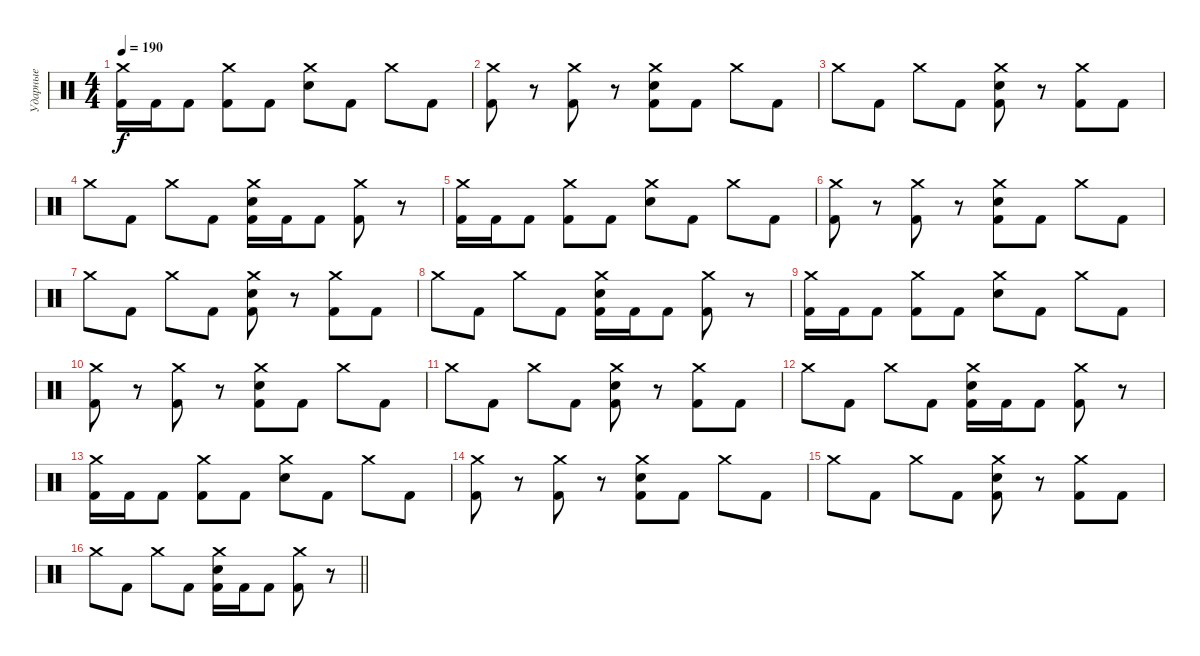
\track ("Ударные" "Ударные") {instrument percussion}
\staff {score}
\articulation defaults
\ts (4 4)
\section ("" "")
\tempo 190
\clef neutral
\ks c
("Crash medium (hit)" "Kick (hit) 2").16{dy f} "Kick (hit) 2".16 "Kick (hit) 2".8 ("Crash medium (hit)" "Kick (hit) 2").8 "Kick (hit) 2".8 ("Crash medium (hit)" "Snare (hit) 2").8 "Kick (hit) 2".8 "Crash medium (hit)".8 "Kick (hit) 2".8 |
("Crash medium (hit)" "Kick (hit) 2").8 r.8 ("Crash medium (hit)" "Kick (hit) 2").8 r.8 ("Crash medium (hit)" "Snare (hit) 2" "Kick (hit) 2").8 "Kick (hit) 2".8 "Crash medium (hit)".8 "Kick (hit) 2".8 |
"Crash medium (hit)".8 "Kick (hit) 2".8 "Crash medium (hit)".8 "Kick (hit) 2".8 ("Crash medium (hit)" "Snare (hit) 2" "Kick (hit) 2").8 r.8 ("Crash medium (hit)" "Kick (hit) 2").8 "Kick (hit) 2".8 |
"Crash medium (hit)".8 "Kick (hit) 2".8 "Crash medium (hit)".8 "Kick (hit) 2".8 ("Crash medium (hit)" "Snare (hit) 2" "Kick (hit) 2").16 "Kick (hit) 2".16 "Kick (hit) 2".8 ("Crash medium (hit)" "Kick (hit) 2").8 r.8 |
("Crash medium (hit)" "Kick (hit) 2").16 "Kick (hit) 2".16 "Kick (hit) 2".8 ("Crash medium (hit)" "Kick (hit) 2").8 "Kick (hit) 2".8 ("Crash medium (hit)" "Snare (hit) 2").8 "Kick (hit) 2".8 "Crash medium (hit)".8 "Kick (hit) 2".8 |
("Crash medium (hit)" "Kick (hit) 2").8 r.8 ("Crash medium (hit)" "Kick (hit) 2").8 r.8 ("Crash medium (hit)" "Snare (hit) 2" "Kick (hit) 2").8 "Kick (hit) 2".8 "Crash medium (hit)".8 "Kick (hit) 2".8 |
"Crash medium (hit)".8 "Kick (hit) 2".8 "Crash medium (hit)".8 "Kick (hit) 2".8 ("Crash medium (hit)" "Snare (hit) 2" "Kick (hit) 2").8 r.8 ("Crash medium (hit)" "Kick (hit) 2").8 "Kick (hit) 2".8 |
"Crash medium (hit)".8 "Kick (hit) 2".8 "Crash medium (hit)".8 "Kick (hit) 2".8 ("Crash medium (hit)" "Snare (hit) 2" "Kick (hit) 2").16 "Kick (hit) 2".16 "Kick (hit) 2".8 ("Crash medium (hit)" "Kick (hit) 2").8 r.8 |
("Crash medium (hit)" "Kick (hit) 2").16 "Kick (hit) 2".16 "Kick (hit) 2".8 ("Crash medium (hit)" "Kick (hit) 2").8 "Kick (hit) 2".8 ("Crash medium (hit)" "Snare (hit) 2").8 "Kick (hit) 2".8 "Crash medium (hit)".8 "Kick (hit) 2".8 |
("Crash medium (hit)" "Kick (hit) 2").8 r.8 ("Crash medium (hit)" "Kick (hit) 2").8 r.8 ("Crash medium (hit)" "Snare (hit) 2" "Kick (hit) 2").8 "Kick (hit) 2".8 "Crash medium (hit)".8 "Kick (hit) 2".8 |
"Crash medium (hit)".8 "Kick (hit) 2".8 "Crash medium (hit)".8 "Kick (hit) 2".8 ("Crash medium (hit)" "Snare (hit) 2" "Kick (hit) 2").8 r.8 ("Crash medium (hit)" "Kick (hit) 2").8 "Kick (hit) 2".8 |
"Crash medium (hit)".8 "Kick (hit) 2".8 "Crash medium (hit)".8 "Kick (hit) 2".8 ("Crash medium (hit)" "Snare (hit) 2" "Kick (hit) 2").16 "Kick (hit) 2".16 "Kick (hit) 2".8 ("Crash medium (hit)" "Kick (hit) 2").8 r.8 |
("Crash medium (hit)" "Kick (hit) 2").16 "Kick (hit) 2".16 "Kick (hit) 2".8 ("Crash medium (hit)" "Kick (hit) 2").8 "Kick (hit) 2".8 ("Crash medium (hit)" "Snare (hit) 2").8 "Kick (hit) 2".8 "Crash medium (hit)".8 "Kick (hit) 2".8 |
("Crash medium (hit)" "Kick (hit) 2").8 r.8 ("Crash medium (hit)" "Kick (hit) 2").8 r.8 ("Crash medium (hit)" "Snare (hit) 2" "Kick (hit) 2").8 "Kick (hit) 2".8 "Crash medium (hit)".8 "Kick (hit) 2".8 |
"Crash medium (hit)".8 "Kick (hit) 2".8 "Crash medium (hit)".8 "Kick (hit) 2".8 ("Crash medium (hit)" "Snare (hit) 2" "Kick (hit) 2").8 r.8 ("Crash medium (hit)" "Kick (hit) 2").8 "Kick (hit) 2".8 |
\barLineRight lightlight "Crash medium (hit)".8 "Kick (hit) 2".8 "Crash medium (hit)".8 "Kick (hit) 2".8
("Crash medium (hit)" "Snare (hit) 2" "Kick (hit) 2").16 "Kick (hit) 2".16 "Kick (hit) 2".8 ("Crash medium (hit)" "Kick (hit) 2").8 r.8
